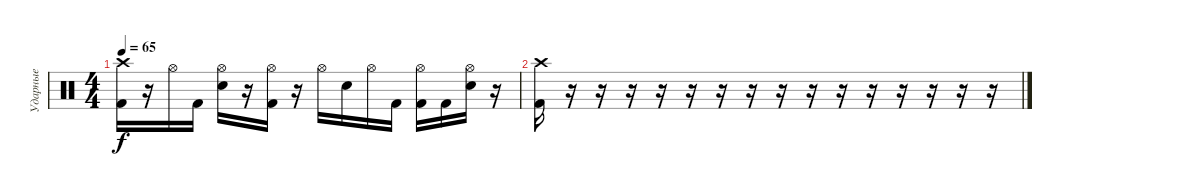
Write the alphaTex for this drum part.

\track ("Ударные" "Ударные") {instrument percussion}
\staff {score}
\articulation defaults
\ts (4 4)
\tempo 65
\clef neutral
\ks c
("Crash high (hit)" "Kick (hit) 2").16{dy f} r.16 "Hi-Hat (open)".16 "Kick (hit) 2".16 ("Hi-Hat (open)" "Electric Snare (hit)").16 r.16 ("Hi-Hat (open)" "Kick (hit) 2").16 r.16 "Hi-Hat (open)".16 "Electric Snare (hit)".16 "Hi-Hat (open)".16 "Kick (hit) 2".16 ("Hi-Hat (open)" "Kick (hit) 2").16 "Kick (hit) 2".16 ("Hi-Hat (open)" "Electric Snare (hit)").16 r.16 |
("Crash high (hit)" "Kick (hit) 2").16 r.16 r.16 r.16 r.16 r.16 r.16 r.16 r.16 r.16 r.16 r.16 r.16 r.16 r.16 r.16
